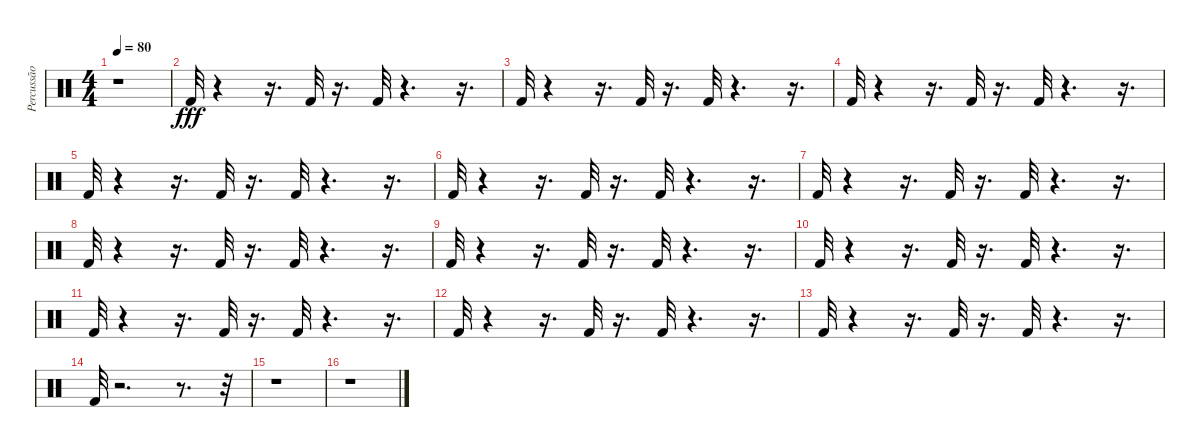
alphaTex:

\track ("Percussão" "Percussão") {instrument percussion}
\staff {score}
\articulation defaults
\ts (4 4)
\tempo 80
\clef neutral
\ks c
r.1{dy fff} |
"Kick (hit) 2".32 r.4 r.16{d} "Kick (hit) 2".32 r.16{d} "Kick (hit) 2".32 r.4{d} r.16{d} |
"Kick (hit) 2".32 r.4 r.16{d} "Kick (hit) 2".32 r.16{d} "Kick (hit) 2".32 r.4{d} r.16{d} |
"Kick (hit) 2".32 r.4 r.16{d} "Kick (hit) 2".32 r.16{d} "Kick (hit) 2".32 r.4{d} r.16{d} |
"Kick (hit) 2".32 r.4 r.16{d} "Kick (hit) 2".32 r.16{d} "Kick (hit) 2".32 r.4{d} r.16{d} |
"Kick (hit) 2".32 r.4 r.16{d} "Kick (hit) 2".32 r.16{d} "Kick (hit) 2".32 r.4{d} r.16{d} |
"Kick (hit) 2".32 r.4 r.16{d} "Kick (hit) 2".32 r.16{d} "Kick (hit) 2".32 r.4{d} r.16{d} |
"Kick (hit) 2".32 r.4 r.16{d} "Kick (hit) 2".32 r.16{d} "Kick (hit) 2".32 r.4{d} r.16{d} |
"Kick (hit) 2".32 r.4 r.16{d} "Kick (hit) 2".32 r.16{d} "Kick (hit) 2".32 r.4{d} r.16{d} |
"Kick (hit) 2".32 r.4 r.16{d} "Kick (hit) 2".32 r.16{d} "Kick (hit) 2".32 r.4{d} r.16{d} |
"Kick (hit) 2".32 r.4 r.16{d} "Kick (hit) 2".32 r.16{d} "Kick (hit) 2".32 r.4{d} r.16{d} |
"Kick (hit) 2".32 r.4 r.16{d} "Kick (hit) 2".32 r.16{d} "Kick (hit) 2".32 r.4{d} r.16{d} |
"Kick (hit) 2".32 r.4 r.16{d} "Kick (hit) 2".32 r.16{d} "Kick (hit) 2".32 r.4{d} r.16{d} |
"Kick (hit) 2".32 r.2{d} r.8{d} r.32 |
r.1 |
r.1
